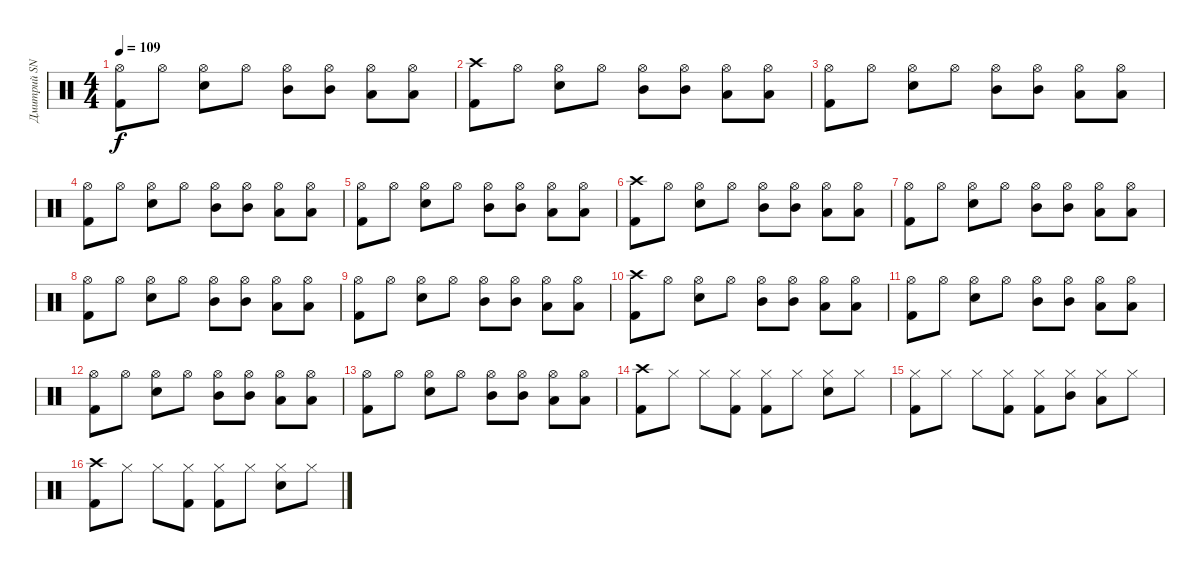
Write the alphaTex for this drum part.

\track ("Дмитрий SNAKE Хакимов" "Дмитрий SN") {instrument percussion}
\staff {score}
\articulation defaults
\ts (4 4)
\tempo 109
\clef neutral
\ks c
("Hi-Hat (open)" "Kick (hit) 2").8{dy f} "Hi-Hat (open)".8 ("Hi-Hat (open)" "Snare (hit) 2").8 "Hi-Hat (open)".8 ("Hi-Hat (open)" "Mid Tom (hit)").8 ("Hi-Hat (open)" "Mid Tom (hit)").8 ("Hi-Hat (open)" "Low Tom (hit)").8 ("Hi-Hat (open)" "Low Tom (hit)").8 |
("Crash high (hit)" "Kick (hit) 2").8 "Hi-Hat (open)".8 ("Hi-Hat (open)" "Snare (hit) 2").8 "Hi-Hat (open)".8 ("Hi-Hat (open)" "Mid Tom (hit)").8 ("Hi-Hat (open)" "Mid Tom (hit)").8 ("Hi-Hat (open)" "Low Tom (hit)").8 ("Hi-Hat (open)" "Low Tom (hit)").8 |
("Hi-Hat (open)" "Kick (hit) 2").8 "Hi-Hat (open)".8 ("Hi-Hat (open)" "Snare (hit) 2").8 "Hi-Hat (open)".8 ("Hi-Hat (open)" "Mid Tom (hit)").8 ("Hi-Hat (open)" "Mid Tom (hit)").8 ("Hi-Hat (open)" "Low Tom (hit)").8 ("Hi-Hat (open)" "Low Tom (hit)").8 |
("Hi-Hat (open)" "Kick (hit) 2").8 "Hi-Hat (open)".8 ("Hi-Hat (open)" "Snare (hit) 2").8 "Hi-Hat (open)".8 ("Hi-Hat (open)" "Mid Tom (hit)").8 ("Hi-Hat (open)" "Mid Tom (hit)").8 ("Hi-Hat (open)" "Low Tom (hit)").8 ("Hi-Hat (open)" "Low Tom (hit)").8 |
("Hi-Hat (open)" "Kick (hit) 2").8 "Hi-Hat (open)".8 ("Hi-Hat (open)" "Snare (hit) 2").8 "Hi-Hat (open)".8 ("Hi-Hat (open)" "Mid Tom (hit)").8 ("Hi-Hat (open)" "Mid Tom (hit)").8 ("Hi-Hat (open)" "Low Tom (hit)").8 ("Hi-Hat (open)" "Low Tom (hit)").8 |
("Crash high (hit)" "Kick (hit) 2").8 "Hi-Hat (open)".8 ("Hi-Hat (open)" "Snare (hit) 2").8 "Hi-Hat (open)".8 ("Hi-Hat (open)" "Mid Tom (hit)").8 ("Hi-Hat (open)" "Mid Tom (hit)").8 ("Hi-Hat (open)" "Low Tom (hit)").8 ("Hi-Hat (open)" "Low Tom (hit)").8 |
("Hi-Hat (open)" "Kick (hit) 2").8 "Hi-Hat (open)".8 ("Hi-Hat (open)" "Snare (hit) 2").8 "Hi-Hat (open)".8 ("Hi-Hat (open)" "Mid Tom (hit)").8 ("Hi-Hat (open)" "Mid Tom (hit)").8 ("Hi-Hat (open)" "Low Tom (hit)").8 ("Hi-Hat (open)" "Low Tom (hit)").8 |
("Hi-Hat (open)" "Kick (hit) 2").8 "Hi-Hat (open)".8 ("Hi-Hat (open)" "Snare (hit) 2").8 "Hi-Hat (open)".8 ("Hi-Hat (open)" "Mid Tom (hit)").8 ("Hi-Hat (open)" "Mid Tom (hit)").8 ("Hi-Hat (open)" "Low Tom (hit)").8 ("Hi-Hat (open)" "Low Tom (hit)").8 |
("Hi-Hat (open)" "Kick (hit) 2").8 "Hi-Hat (open)".8 ("Hi-Hat (open)" "Snare (hit) 2").8 "Hi-Hat (open)".8 ("Hi-Hat (open)" "Mid Tom (hit)").8 ("Hi-Hat (open)" "Mid Tom (hit)").8 ("Hi-Hat (open)" "Low Tom (hit)").8 ("Hi-Hat (open)" "Low Tom (hit)").8 |
("Crash high (hit)" "Kick (hit) 2").8 "Hi-Hat (open)".8 ("Hi-Hat (open)" "Snare (hit) 2").8 "Hi-Hat (open)".8 ("Hi-Hat (open)" "Mid Tom (hit)").8 ("Hi-Hat (open)" "Mid Tom (hit)").8 ("Hi-Hat (open)" "Low Tom (hit)").8 ("Hi-Hat (open)" "Low Tom (hit)").8 |
("Hi-Hat (open)" "Kick (hit) 2").8 "Hi-Hat (open)".8 ("Hi-Hat (open)" "Snare (hit) 2").8 "Hi-Hat (open)".8 ("Hi-Hat (open)" "Mid Tom (hit)").8 ("Hi-Hat (open)" "Mid Tom (hit)").8 ("Hi-Hat (open)" "Low Tom (hit)").8 ("Hi-Hat (open)" "Low Tom (hit)").8 |
("Hi-Hat (open)" "Kick (hit) 2").8 "Hi-Hat (open)".8 ("Hi-Hat (open)" "Snare (hit) 2").8 "Hi-Hat (open)".8 ("Hi-Hat (open)" "Mid Tom (hit)").8 ("Hi-Hat (open)" "Mid Tom (hit)").8 ("Hi-Hat (open)" "Low Tom (hit)").8 ("Hi-Hat (open)" "Low Tom (hit)").8 |
("Hi-Hat (open)" "Kick (hit) 2").8 "Hi-Hat (open)".8 ("Hi-Hat (open)" "Snare (hit) 2").8 "Hi-Hat (open)".8 ("Hi-Hat (open)" "Mid Tom (hit)").8 ("Hi-Hat (open)" "Mid Tom (hit)").8 ("Hi-Hat (open)" "Low Tom (hit)").8 ("Hi-Hat (open)" "Low Tom (hit)").8 |
("Crash high (hit)" "Kick (hit) 2").8 "Hi-Hat (closed)".8 "Hi-Hat (closed)".8 ("Hi-Hat (closed)" "Kick (hit) 2").8 ("Hi-Hat (closed)" "Kick (hit) 2").8 "Hi-Hat (closed)".8 ("Hi-Hat (closed)" "Snare (hit) 2").8 "Hi-Hat (closed)".8 |
("Hi-Hat (closed)" "Kick (hit) 2").8 "Hi-Hat (closed)".8 "Hi-Hat (closed)".8 ("Hi-Hat (closed)" "Kick (hit) 2").8 ("Hi-Hat (closed)" "Kick (hit) 2").8 ("Hi-Hat (closed)" "Mid Tom (hit)").8 ("Hi-Hat (closed)" "Low Tom (hit)").8 "Hi-Hat (closed)".8 |
("Crash high (hit)" "Kick (hit) 2").8 "Hi-Hat (closed)".8 "Hi-Hat (closed)".8 ("Hi-Hat (closed)" "Kick (hit) 2").8 ("Hi-Hat (closed)" "Kick (hit) 2").8 "Hi-Hat (closed)".8 ("Hi-Hat (closed)" "Snare (hit) 2").8 "Hi-Hat (closed)".8
